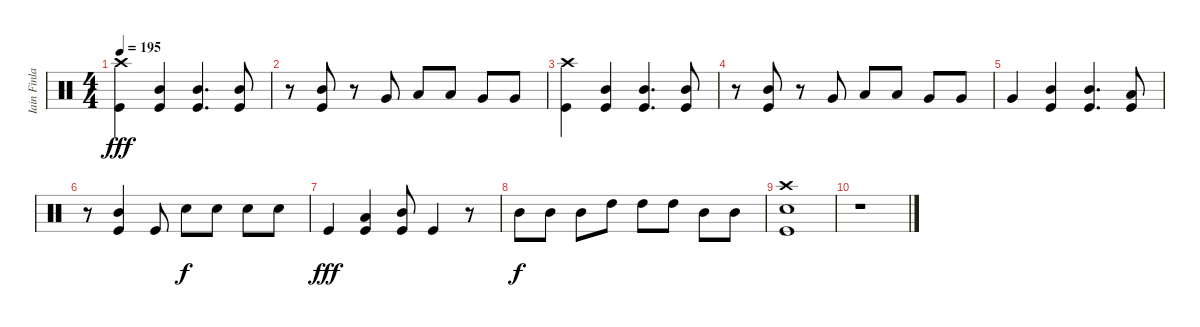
\track ("Iain Finlay (Batería)" "Iain Finla") {instrument percussion}
\staff {score}
\articulation defaults
\ts (4 4)
\tempo 195
\clef neutral
\ks c
("Crash high (hit)" "Kick (hit)").4{dy fff} ("Mid Tom (hit)" "Kick (hit)").4 ("Mid Tom (hit)" "Kick (hit)").4{d} ("Mid Tom (hit)" "Kick (hit)").8 |
r.8 ("Mid Tom (hit)" "Kick (hit)").8 r.8 "Very Low Tom (hit)".8 "Low Tom (hit)".8 "Low Tom (hit)".8 "Very Low Tom (hit)".8 "Very Low Tom (hit)".8 |
("Crash high (hit)" "Kick (hit)").4 ("Mid Tom (hit)" "Kick (hit)").4 ("Mid Tom (hit)" "Kick (hit)").4{d} ("Mid Tom (hit)" "Kick (hit)").8 |
r.8 ("Mid Tom (hit)" "Kick (hit)").8 r.8 "Very Low Tom (hit)".8 "Low Tom (hit)".8 "Low Tom (hit)".8 "Very Low Tom (hit)".8 "Very Low Tom (hit)".8 |
"Very Low Tom (hit)".4 ("Mid Tom (hit)" "Kick (hit)").4 ("Mid Tom (hit)" "Kick (hit)").4{d} ("Low Tom (hit)" "Kick (hit)").8 |
r.8 ("Mid Tom (hit)" "Kick (hit)").4 "Kick (hit)".8 "Electric Snare (hit)".8{dy f} "Electric Snare (hit)".8 "Electric Snare (hit)".8 "Electric Snare (hit)".8 |
"Kick (hit)".4{dy fff} ("Low Tom (hit)" "Kick (hit)").4 ("Mid Tom (hit)" "Kick (hit)").8 "Kick (hit)".4 r.8 |
"Mid Tom (hit)".8{dy f} "Mid Tom (hit)".8 "Mid Tom (hit)".8 "High Tom (hit)".8 "High Tom (hit)".8 "High Tom (hit)".8 "Mid Tom (hit)".8 "Mid Tom (hit)".8 |
("Crash high (hit)" "Electric Snare (hit)" "Kick (hit)").1 |
r.1
